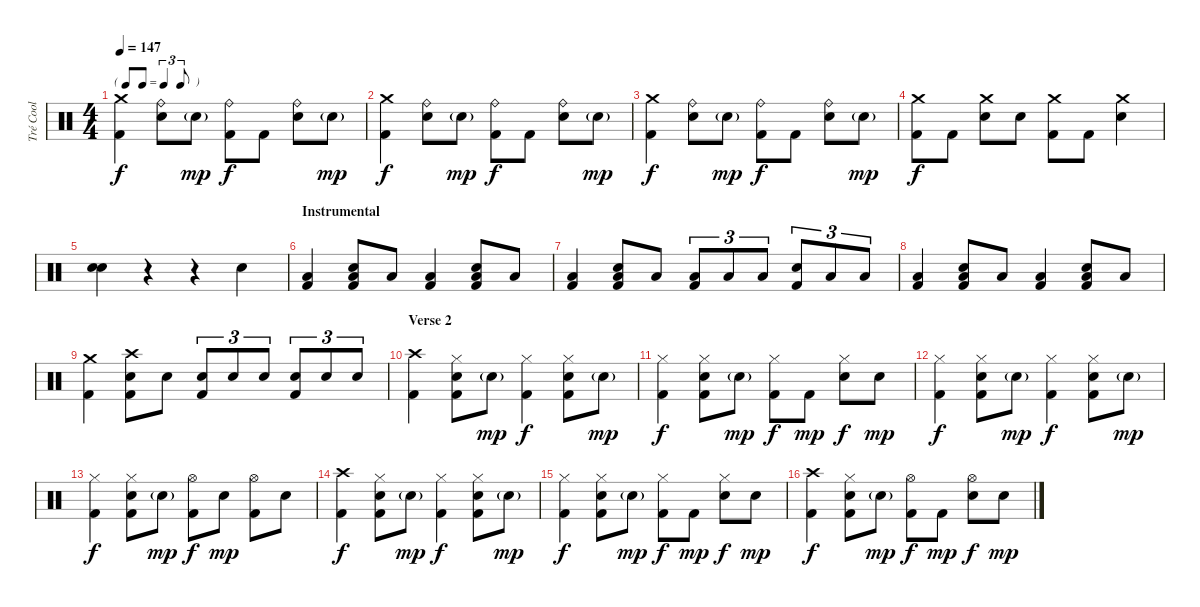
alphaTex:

\track ("Tré Cool" "Tré Cool") {instrument percussion}
\staff {score}
\articulation defaults
\ts (4 4)
\tf triplet8th
\tempo 147
\clef neutral
\ks c
("Crash medium (hit)" "Kick (hit) 2").4{dy f} ("Ride (bell)" "Snare (hit) 2").8 "Snare (hit) 2"{g}.8{dy mp} ("Ride (bell)" "Kick (hit) 2").8{dy f} "Kick (hit) 2".8 ("Ride (bell)" "Snare (hit) 2").8 "Snare (hit) 2"{g}.8{dy mp} |
("Crash medium (hit)" "Kick (hit) 2").4{dy f} ("Ride (bell)" "Snare (hit) 2").8 "Snare (hit) 2"{g}.8{dy mp} ("Ride (bell)" "Kick (hit) 2").8{dy f} "Kick (hit) 2".8 ("Ride (bell)" "Snare (hit) 2").8 "Snare (hit) 2"{g}.8{dy mp} |
("Crash medium (hit)" "Kick (hit) 2").4{dy f} ("Ride (bell)" "Snare (hit) 2").8 "Snare (hit) 2"{g}.8{dy mp} ("Ride (bell)" "Kick (hit) 2").8{dy f} "Kick (hit) 2".8 ("Ride (bell)" "Snare (hit) 2").8 "Snare (hit) 2"{g}.8{dy mp} |
("Crash medium (hit)" "Kick (hit) 2").8{dy f} "Kick (hit) 2".8 ("Crash medium (hit)" "Snare (hit) 2").8 "Snare (hit) 2".8 ("Crash medium (hit)" "Kick (hit) 2").8 "Kick (hit) 2".8 ("Crash medium (hit)" "Snare (hit) 2").4 |
("Snare (hit) 2" "Snare (hit) 2").4{bu 480} r.4 r.4 "Snare (hit) 2".4 |
\section ("" "Instrumental")
("Low Tom (hit)" "Kick (hit) 2").4 ("Snare (hit) 2" "Low Tom (hit)" "Kick (hit) 2").8 "Low Tom (hit)".8 ("Low Tom (hit)" "Kick (hit) 2").4 ("Snare (hit) 2" "Low Tom (hit)" "Kick (hit) 2").8 "Low Tom (hit)".8 |
("Low Tom (hit)" "Kick (hit) 2").4 ("Snare (hit) 2" "Low Tom (hit)" "Kick (hit) 2").8 "Low Tom (hit)".8 ("Low Tom (hit)" "Kick (hit) 2").8{tu (3 2)} "Low Tom (hit)".8{tu (3 2)} "Low Tom (hit)".8{tu (3 2)} ("Snare (hit) 2" "Kick (hit) 2").8{tu (3 2)} "Low Tom (hit)".8{tu (3 2)} "Low Tom (hit)".8{tu (3 2)} |
("Low Tom (hit)" "Kick (hit) 2").4 ("Snare (hit) 2" "Low Tom (hit)" "Kick (hit) 2").8 "Low Tom (hit)".8 ("Low Tom (hit)" "Kick (hit) 2").4 ("Snare (hit) 2" "Low Tom (hit)" "Kick (hit) 2").8 "Low Tom (hit)".8 |
("Crash medium (hit)" "Kick (hit) 2").4 ("Crash high (hit)" "Snare (hit) 2" "Kick (hit) 2").8 "Snare (hit) 2".8 ("Snare (hit) 2" "Kick (hit) 2").8{tu (3 2)} "Snare (hit) 2".8{tu (3 2)} "Snare (hit) 2".8{tu (3 2)} ("Snare (hit) 2" "Kick (hit) 2").8{tu (3 2)} "Snare (hit) 2".8{tu (3 2)} "Snare (hit) 2".8{tu (3 2)} |
\section ("" "Verse 2")
("Crash high (hit)" "Kick (hit) 2").4 ("Hi-Hat (closed)" "Snare (hit) 2" "Kick (hit) 2").8 "Snare (hit) 2"{g}.8{dy mp} ("Hi-Hat (closed)" "Kick (hit) 2").4{dy f} ("Hi-Hat (closed)" "Snare (hit) 2" "Kick (hit) 2").8 "Snare (hit) 2"{g}.8{dy mp} |
("Hi-Hat (closed)" "Kick (hit) 2").4{dy f} ("Hi-Hat (closed)" "Snare (hit) 2" "Kick (hit) 2").8 "Snare (hit) 2"{g}.8{dy mp} ("Hi-Hat (closed)" "Kick (hit) 2").8{dy f} "Kick (hit) 2".8{dy mp} ("Hi-Hat (closed)" "Snare (hit) 2").8{dy f} "Snare (hit) 2".8{dy mp} |
("Hi-Hat (closed)" "Kick (hit) 2").4{dy f} ("Hi-Hat (closed)" "Snare (hit) 2" "Kick (hit) 2").8 "Snare (hit) 2"{g}.8{dy mp} ("Hi-Hat (closed)" "Kick (hit) 2").4{dy f} ("Hi-Hat (closed)" "Snare (hit) 2" "Kick (hit) 2").8 "Snare (hit) 2"{g}.8{dy mp} |
("Hi-Hat (closed)" "Kick (hit) 2").4{dy f} ("Hi-Hat (closed)" "Snare (hit) 2" "Kick (hit) 2").8 "Snare (hit) 2"{g}.8{dy mp} ("Hi-Hat (open)" "Kick (hit) 2").8{dy f} "Snare (hit) 2".8{dy mp} ("Hi-Hat (open)" "Kick (hit) 2").8 "Snare (hit) 2".8 |
("Crash high (hit)" "Kick (hit) 2").4{dy f} ("Hi-Hat (closed)" "Snare (hit) 2" "Kick (hit) 2").8 "Snare (hit) 2"{g}.8{dy mp} ("Hi-Hat (closed)" "Kick (hit) 2").4{dy f} ("Hi-Hat (closed)" "Snare (hit) 2" "Kick (hit) 2").8 "Snare (hit) 2"{g}.8{dy mp} |
("Hi-Hat (closed)" "Kick (hit) 2").4{dy f} ("Hi-Hat (closed)" "Snare (hit) 2" "Kick (hit) 2").8 "Snare (hit) 2"{g}.8{dy mp} ("Hi-Hat (closed)" "Kick (hit) 2").8{dy f} "Kick (hit) 2".8{dy mp} ("Hi-Hat (closed)" "Snare (hit) 2").8{dy f} "Snare (hit) 2".8{dy mp} |
("Crash high (hit)" "Kick (hit) 2").4{dy f} ("Hi-Hat (closed)" "Snare (hit) 2" "Kick (hit) 2").8 "Snare (hit) 2"{g}.8{dy mp} ("Hi-Hat (open)" "Kick (hit) 2").8{dy f} "Kick (hit) 2".8{dy mp} ("Hi-Hat (open)" "Snare (hit) 2").8{dy f} "Snare (hit) 2".8{dy mp}
